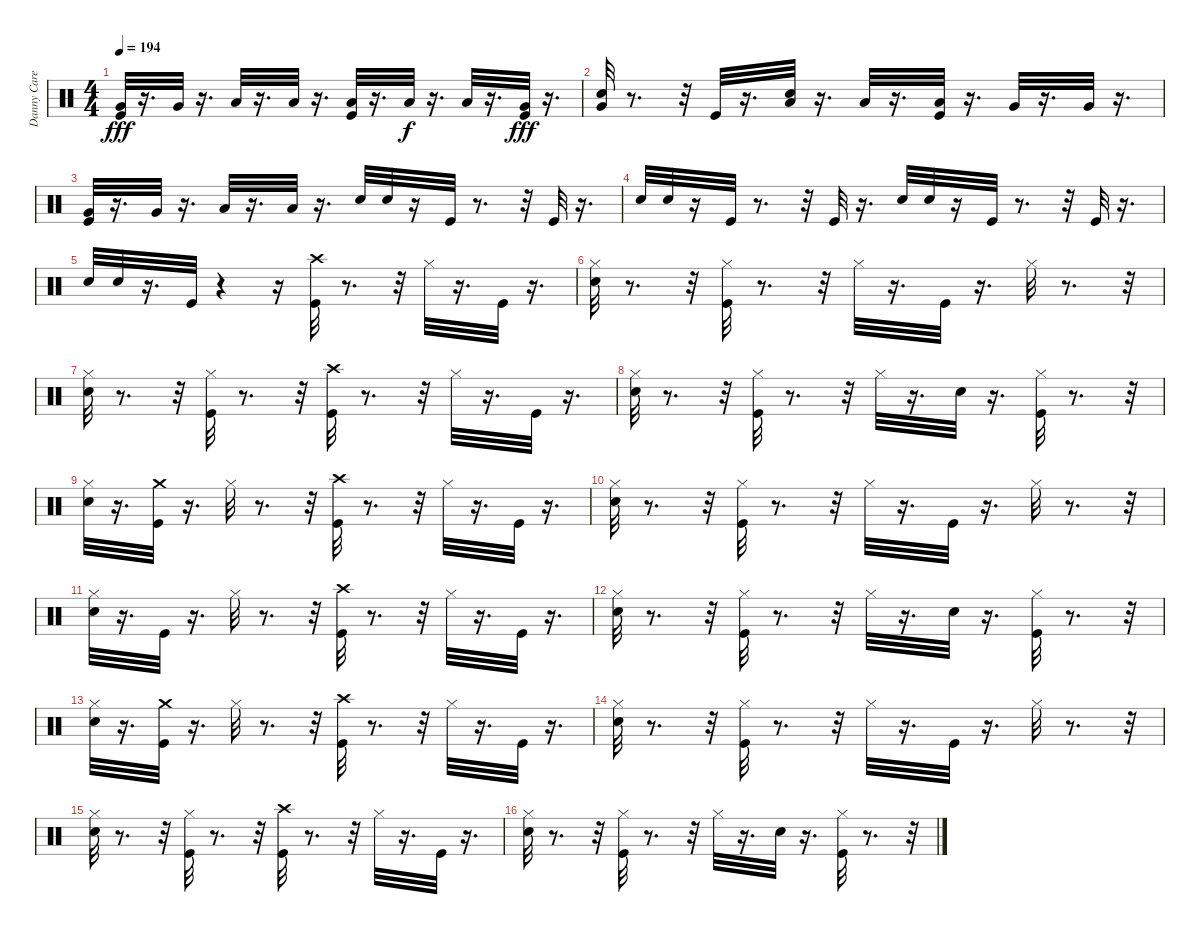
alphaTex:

\track ("Danny Carey" "Danny Care") {instrument percussion}
\staff {score}
\articulation defaults
\ts (4 4)
\tempo 194
\clef neutral
\ks c
("Very Low Tom (hit)" "Kick (hit)").32{dy fff} r.16{d} "Very Low Tom (hit)".32 r.16{d} "Low Floor Tom (hit)".32 r.16{d} "Low Floor Tom (hit)".32 r.16{d} ("Low Floor Tom (hit)" "Kick (hit)").32 r.16{d} "Low Floor Tom (hit)".32{dy f} r.16{d} "Low Floor Tom (hit)".32 r.16{d} ("Very Low Tom (hit)" "Kick (hit)").32{dy fff} r.16{d} |
("Very Low Tom (hit)" "Snare (hit) 2").32 r.8{d} r.32 "Kick (hit)".32 r.16{d} ("Low Tom (hit)" "Snare (hit) 2").32 r.16{d} "Low Tom (hit)".32 r.16{d} ("Low Tom (hit)" "Kick (hit)").32 r.16{d} "Very Low Tom (hit)".32 r.16{d} "Very Low Tom (hit)".32 r.16{d} |
("Very Low Tom (hit)" "Kick (hit)").32 r.16{d} "Very Low Tom (hit)".32 r.16{d} "Low Floor Tom (hit)".32 r.16{d} "Low Floor Tom (hit)".32 r.16{d} "Snare (hit) 2".32 "Snare (hit) 2".32 r.16 "Kick (hit)".32 r.8{d} r.32 "Kick (hit)".32 r.16{d} |
"Snare (hit) 2".32 "Snare (hit) 2".32 r.16 "Kick (hit)".32 r.8{d} r.32 "Kick (hit)".32 r.16{d} "Snare (hit) 2".32 "Snare (hit) 2".32 r.16 "Kick (hit)".32 r.8{d} r.32 "Kick (hit)".32 r.16{d} |
"Snare (hit) 2".32 "Snare (hit) 2".32 r.16{d} "Kick (hit)".32 r.4 r.16 ("Crash high (hit)" "Kick (hit)").32 r.8{d} r.32 "Hi-Hat (closed)".32 r.16{d} "Kick (hit)".32 r.16{d} |
("Hi-Hat (closed)" "Snare (hit) 2").32 r.8{d} r.32 ("Hi-Hat (closed)" "Kick (hit)").32 r.8{d} r.32 "Hi-Hat (closed)".32 r.16{d} "Kick (hit)".32 r.16{d} "Hi-Hat (closed)".32 r.8{d} r.32 |
("Hi-Hat (closed)" "Snare (hit) 2").32 r.8{d} r.32 ("Hi-Hat (closed)" "Kick (hit)").32 r.8{d} r.32 ("Kick (hit)" "Crash high (hit)").32 r.8{d} r.32 "Hi-Hat (closed)".32 r.16{d} "Kick (hit)".32 r.16{d} |
("Snare (hit) 2" "Hi-Hat (closed)").32 r.8{d} r.32 ("Kick (hit)" "Hi-Hat (closed)").32 r.8{d} r.32 "Hi-Hat (closed)".32 r.16{d} "Snare (hit) 2".32 r.16{d} ("Kick (hit)" "Hi-Hat (closed)").32 r.8{d} r.32 |
("Snare (hit) 2" "Hi-Hat (closed)").32 r.16{d} ("Kick (hit)" "Crash medium (hit)").32 r.16{d} "Hi-Hat (closed)".32 r.8{d} r.32 ("Crash high (hit)" "Kick (hit)").32 r.8{d} r.32 "Hi-Hat (closed)".32 r.16{d} "Kick (hit)".32 r.16{d} |
("Hi-Hat (closed)" "Snare (hit) 2").32 r.8{d} r.32 ("Hi-Hat (closed)" "Kick (hit)").32 r.8{d} r.32 "Hi-Hat (closed)".32 r.16{d} "Kick (hit)".32 r.16{d} "Hi-Hat (closed)".32 r.8{d} r.32 |
("Hi-Hat (closed)" "Snare (hit) 2").32 r.16{d} "Kick (hit)".32 r.16{d} "Hi-Hat (closed)".32 r.8{d} r.32 ("Kick (hit)" "Crash high (hit)").32 r.8{d} r.32 "Hi-Hat (closed)".32 r.16{d} "Kick (hit)".32 r.16{d} |
("Snare (hit) 2" "Hi-Hat (closed)").32 r.8{d} r.32 ("Kick (hit)" "Hi-Hat (closed)").32 r.8{d} r.32 "Hi-Hat (closed)".32 r.16{d} "Snare (hit) 2".32 r.16{d} ("Kick (hit)" "Hi-Hat (closed)").32 r.8{d} r.32 |
("Snare (hit) 2" "Hi-Hat (closed)").32 r.16{d} ("Kick (hit)" "Crash medium (hit)").32 r.16{d} "Hi-Hat (closed)".32 r.8{d} r.32 ("Crash high (hit)" "Kick (hit)").32 r.8{d} r.32 "Hi-Hat (closed)".32 r.16{d} "Kick (hit)".32 r.16{d} |
("Hi-Hat (closed)" "Snare (hit) 2").32 r.8{d} r.32 ("Hi-Hat (closed)" "Kick (hit)").32 r.8{d} r.32 "Hi-Hat (closed)".32 r.16{d} "Kick (hit)".32 r.16{d} "Hi-Hat (closed)".32 r.8{d} r.32 |
("Hi-Hat (closed)" "Snare (hit) 2").32 r.8{d} r.32 ("Hi-Hat (closed)" "Kick (hit)").32 r.8{d} r.32 ("Kick (hit)" "Crash high (hit)").32 r.8{d} r.32 "Hi-Hat (closed)".32 r.16{d} "Kick (hit)".32 r.16{d} |
("Snare (hit) 2" "Hi-Hat (closed)").32 r.8{d} r.32 ("Kick (hit)" "Hi-Hat (closed)").32 r.8{d} r.32 "Hi-Hat (closed)".32 r.16{d} "Snare (hit) 2".32 r.16{d} ("Kick (hit)" "Hi-Hat (closed)").32 r.8{d} r.32
